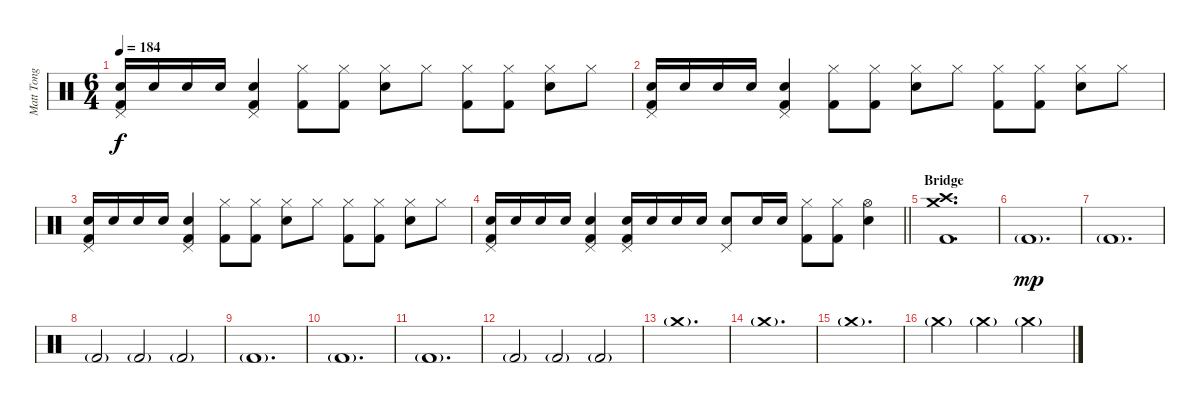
\track ("Matt Tong" "Matt Tong") {instrument percussion}
\staff {score}
\articulation defaults
\ts (6 4)
\tempo 184
\clef neutral
\ks c
("Pedal Hi-Hat (hit)" "Electric Snare (hit)" "Kick (hit) 2").16{dy f} "Electric Snare (hit)".16 "Electric Snare (hit)".16 "Electric Snare (hit)".16 ("Pedal Hi-Hat (hit)" "Electric Snare (hit)" "Kick (hit) 2").4 ("Hi-Hat (closed)" "Kick (hit) 2").8 ("Hi-Hat (closed)" "Kick (hit) 2").8 ("Hi-Hat (closed)" "Electric Snare (hit)").8 "Hi-Hat (closed)".8 ("Hi-Hat (closed)" "Kick (hit) 2").8 ("Hi-Hat (closed)" "Kick (hit) 2").8 ("Hi-Hat (closed)" "Electric Snare (hit)").8 "Hi-Hat (closed)".8 |
("Pedal Hi-Hat (hit)" "Electric Snare (hit)" "Kick (hit) 2").16 "Electric Snare (hit)".16 "Electric Snare (hit)".16 "Electric Snare (hit)".16 ("Pedal Hi-Hat (hit)" "Electric Snare (hit)" "Kick (hit) 2").4 ("Hi-Hat (closed)" "Kick (hit) 2").8 ("Hi-Hat (closed)" "Kick (hit) 2").8 ("Hi-Hat (closed)" "Electric Snare (hit)").8 "Hi-Hat (closed)".8 ("Hi-Hat (closed)" "Kick (hit) 2").8 ("Hi-Hat (closed)" "Kick (hit) 2").8 ("Hi-Hat (closed)" "Electric Snare (hit)").8 "Hi-Hat (closed)".8 |
("Pedal Hi-Hat (hit)" "Electric Snare (hit)" "Kick (hit) 2").16 "Electric Snare (hit)".16 "Electric Snare (hit)".16 "Electric Snare (hit)".16 ("Pedal Hi-Hat (hit)" "Electric Snare (hit)" "Kick (hit) 2").4 ("Hi-Hat (closed)" "Kick (hit) 2").8 ("Hi-Hat (closed)" "Kick (hit) 2").8 ("Hi-Hat (closed)" "Electric Snare (hit)").8 "Hi-Hat (closed)".8 ("Hi-Hat (closed)" "Kick (hit) 2").8 ("Hi-Hat (closed)" "Kick (hit) 2").8 ("Hi-Hat (closed)" "Electric Snare (hit)").8 "Hi-Hat (closed)".8 |
\barLineRight lightlight
("Pedal Hi-Hat (hit)" "Electric Snare (hit)" "Kick (hit) 2").16 "Electric Snare (hit)".16 "Electric Snare (hit)".16 "Electric Snare (hit)".16 ("Pedal Hi-Hat (hit)" "Electric Snare (hit)" "Kick (hit) 2").4 ("Pedal Hi-Hat (hit)" "Electric Snare (hit)" "Kick (hit) 2").16 "Electric Snare (hit)".16 "Electric Snare (hit)".16 "Electric Snare (hit)".16 ("Pedal Hi-Hat (hit)" "Electric Snare (hit)").8 "Electric Snare (hit)".16 "Electric Snare (hit)".16 ("Hi-Hat (closed)" "Kick (hit) 2").8 ("Hi-Hat (closed)" "Kick (hit) 2").8 ("Hi-Hat (open)" "Electric Snare (hit)").4 |
\section ("" "Bridge")
("Crash medium (hit)" "Crash high (hit)" "Kick (hit) 2").1{d} |
"Kick (hit) 2"{g}.1{d dy mp} |
"Kick (hit) 2"{g}.1{d} |
"Kick (hit) 2"{g}.2 "Kick (hit) 2"{g}.2 "Kick (hit) 2"{g}.2 |
"Kick (hit) 2"{g}.1{d} |
"Kick (hit) 2"{g}.1{d} |
"Kick (hit) 2"{g}.1{d} |
"Kick (hit) 2"{g}.2 "Kick (hit) 2"{g}.2 "Kick (hit) 2"{g}.2 |
"Crash medium (hit)"{g}.1{d} |
"Crash medium (hit)"{g}.1{d} |
"Crash medium (hit)"{g}.1{d} |
"Crash medium (hit)"{g}.2 "Crash medium (hit)"{g}.2 "Crash medium (hit)"{g}.2
